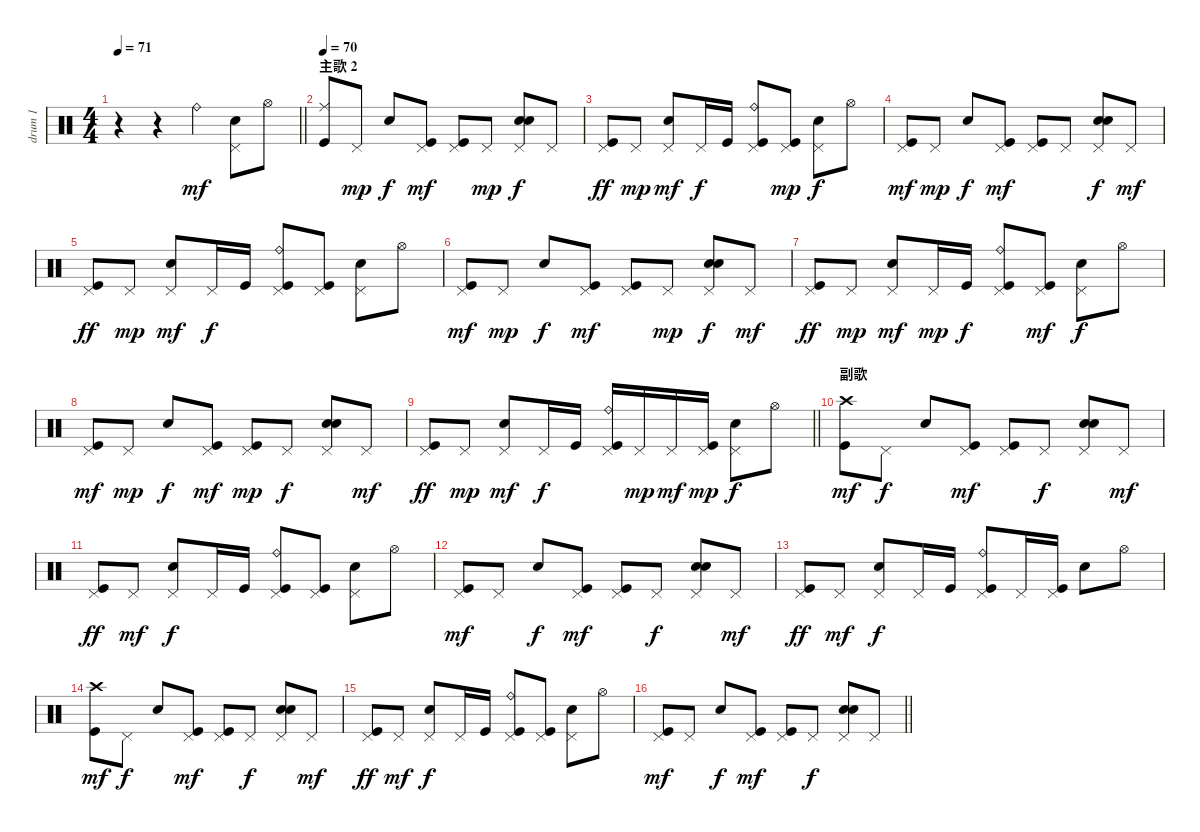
\track ("drum 1" "drum 1") {instrument percussion}
\staff {score}
\articulation defaults
\ts (4 4)
\tempo 71
\clef neutral
\barLineRight lightlight
\ks c
r.4{dy mf} r.4 "Ride (bell)".4 ("Metronome (bell)" "Pedal Hi-Hat (hit)").8 "Hi-Hat (open)".8 |
\section ("" "主歌 2")
\tempo 70
("Ride (middle)" "Kick (hit)").8 "Pedal Hi-Hat (hit)".8{dy mp} "Snare (hit) 2".8{dy f} ("Pedal Hi-Hat (hit)" "Kick (hit)").8{dy mf} ("Pedal Hi-Hat (hit)" "Kick (hit)").8 "Pedal Hi-Hat (hit)".8{dy mp} ("Metronome (bell)" "Pedal Hi-Hat (hit)" "Snare (hit) 2").8{dy f} "Pedal Hi-Hat (hit)".8 |
("Pedal Hi-Hat (hit)" "Kick (hit)").8{dy ff} "Pedal Hi-Hat (hit)".8{dy mp} ("Pedal Hi-Hat (hit)" "Snare (hit) 2").8{dy mf} "Pedal Hi-Hat (hit)".16{dy f} "Kick (hit)".16 ("Ride (bell)" "Pedal Hi-Hat (hit)" "Kick (hit)").8 ("Pedal Hi-Hat (hit)" "Kick (hit)").8{dy mp} ("Pedal Hi-Hat (hit)" "Snare (hit) 2").8{dy f} "Hi-Hat (open)".8 |
("Pedal Hi-Hat (hit)" "Kick (hit)").8{dy mf} "Pedal Hi-Hat (hit)".8{dy mp} "Snare (hit) 2".8{dy f} ("Pedal Hi-Hat (hit)" "Kick (hit)").8{dy mf} ("Pedal Hi-Hat (hit)" "Kick (hit)").8 "Pedal Hi-Hat (hit)".8 ("Metronome (bell)" "Pedal Hi-Hat (hit)" "Snare (hit) 2").8{dy f} "Pedal Hi-Hat (hit)".8{dy mf} |
("Pedal Hi-Hat (hit)" "Kick (hit)").8{dy ff} "Pedal Hi-Hat (hit)".8{dy mp} ("Pedal Hi-Hat (hit)" "Snare (hit) 2").8{dy mf} "Pedal Hi-Hat (hit)".16{dy f} "Kick (hit)".16 ("Ride (bell)" "Pedal Hi-Hat (hit)" "Kick (hit)").8 ("Pedal Hi-Hat (hit)" "Kick (hit)").8 ("Pedal Hi-Hat (hit)" "Snare (hit) 2").8 "Hi-Hat (open)".8 |
("Pedal Hi-Hat (hit)" "Kick (hit)").8{dy mf} "Pedal Hi-Hat (hit)".8{dy mp} "Snare (hit) 2".8{dy f} ("Pedal Hi-Hat (hit)" "Kick (hit)").8{dy mf} ("Pedal Hi-Hat (hit)" "Kick (hit)").8 "Pedal Hi-Hat (hit)".8{dy mp} ("Metronome (bell)" "Pedal Hi-Hat (hit)" "Snare (hit) 2").8{dy f} "Pedal Hi-Hat (hit)".8{dy mf} |
("Pedal Hi-Hat (hit)" "Kick (hit)").8{dy ff} "Pedal Hi-Hat (hit)".8{dy mp} ("Pedal Hi-Hat (hit)" "Snare (hit) 2").8{dy mf} "Pedal Hi-Hat (hit)".16{dy mp} "Kick (hit)".16{dy f} ("Ride (bell)" "Pedal Hi-Hat (hit)" "Kick (hit)").8 ("Pedal Hi-Hat (hit)" "Kick (hit)").8{dy mf} ("Pedal Hi-Hat (hit)" "Snare (hit) 2").8{dy f} "Hi-Hat (open)".8 |
("Pedal Hi-Hat (hit)" "Kick (hit)").8{dy mf} "Pedal Hi-Hat (hit)".8{dy mp} "Snare (hit) 2".8{dy f} ("Pedal Hi-Hat (hit)" "Kick (hit)").8{dy mf} ("Pedal Hi-Hat (hit)" "Kick (hit)").8{dy mp} "Pedal Hi-Hat (hit)".8{dy f} ("Metronome (bell)" "Pedal Hi-Hat (hit)" "Snare (hit) 2").8 "Pedal Hi-Hat (hit)".8{dy mf} |
\barLineRight lightlight
("Pedal Hi-Hat (hit)" "Kick (hit)").8{dy ff} "Pedal Hi-Hat (hit)".8{dy mp} ("Pedal Hi-Hat (hit)" "Snare (hit) 2").8{dy mf} "Pedal Hi-Hat (hit)".16{dy f} "Kick (hit)".16 ("Ride (bell)" "Pedal Hi-Hat (hit)" "Kick (hit)").16 "Pedal Hi-Hat (hit)".16{dy mp} "Pedal Hi-Hat (hit)".16{dy mf} ("Pedal Hi-Hat (hit)" "Kick (hit)").16{dy mp} ("Pedal Hi-Hat (hit)" "Snare (hit) 2").8{dy f} "Hi-Hat (open)".8 |
\section ("" "副歌")
("Crash high (hit)" "Kick (hit)").8{dy mf} "Pedal Hi-Hat (hit)".8{dy f} "Snare (hit) 2".8 ("Pedal Hi-Hat (hit)" "Kick (hit)").8{dy mf} ("Pedal Hi-Hat (hit)" "Kick (hit)").8 "Pedal Hi-Hat (hit)".8{dy f} ("Metronome (bell)" "Pedal Hi-Hat (hit)" "Snare (hit) 2").8 "Pedal Hi-Hat (hit)".8{dy mf} |
("Pedal Hi-Hat (hit)" "Kick (hit)").8{dy ff} "Pedal Hi-Hat (hit)".8{dy mf} ("Pedal Hi-Hat (hit)" "Snare (hit) 2").8{dy f} "Pedal Hi-Hat (hit)".16 "Kick (hit)".16 ("Ride (bell)" "Pedal Hi-Hat (hit)" "Kick (hit)").8 ("Pedal Hi-Hat (hit)" "Kick (hit)").8 ("Pedal Hi-Hat (hit)" "Snare (hit) 2").8 "Hi-Hat (open)".8 |
("Pedal Hi-Hat (hit)" "Kick (hit)").8{dy mf} "Pedal Hi-Hat (hit)".8 "Snare (hit) 2".8{dy f} ("Pedal Hi-Hat (hit)" "Kick (hit)").8{dy mf} ("Pedal Hi-Hat (hit)" "Kick (hit)").8 "Pedal Hi-Hat (hit)".8{dy f} ("Metronome (bell)" "Pedal Hi-Hat (hit)" "Snare (hit) 2").8 "Pedal Hi-Hat (hit)".8{dy mf} |
("Pedal Hi-Hat (hit)" "Kick (hit)").8{dy ff} "Pedal Hi-Hat (hit)".8{dy mf} ("Pedal Hi-Hat (hit)" "Snare (hit) 2").8{dy f} "Pedal Hi-Hat (hit)".16 "Kick (hit)".16 ("Ride (bell)" "Pedal Hi-Hat (hit)" "Kick (hit)").8 "Pedal Hi-Hat (hit)".16 ("Pedal Hi-Hat (hit)" "Kick (hit)").16 "Snare (hit) 2".8 "Hi-Hat (open)".8 |
("Crash high (hit)" "Kick (hit)").8{dy mf} "Pedal Hi-Hat (hit)".8{dy f} "Snare (hit) 2".8 ("Pedal Hi-Hat (hit)" "Kick (hit)").8{dy mf} ("Pedal Hi-Hat (hit)" "Kick (hit)").8 "Pedal Hi-Hat (hit)".8{dy f} ("Metronome (bell)" "Pedal Hi-Hat (hit)" "Snare (hit) 2").8 "Pedal Hi-Hat (hit)".8{dy mf} |
("Pedal Hi-Hat (hit)" "Kick (hit)").8{dy ff} "Pedal Hi-Hat (hit)".8{dy mf} ("Pedal Hi-Hat (hit)" "Snare (hit) 2").8{dy f} "Pedal Hi-Hat (hit)".16 "Kick (hit)".16 ("Ride (bell)" "Pedal Hi-Hat (hit)" "Kick (hit)").8 ("Pedal Hi-Hat (hit)" "Kick (hit)").8 ("Pedal Hi-Hat (hit)" "Snare (hit) 2").8 "Hi-Hat (open)".8 |
\barLineRight lightlight
("Pedal Hi-Hat (hit)" "Kick (hit)").8{dy mf} "Pedal Hi-Hat (hit)".8 "Snare (hit) 2".8{dy f} ("Pedal Hi-Hat (hit)" "Kick (hit)").8{dy mf} ("Pedal Hi-Hat (hit)" "Kick (hit)").8 "Pedal Hi-Hat (hit)".8{dy f} ("Metronome (bell)" "Pedal Hi-Hat (hit)" "Snare (hit) 2").8 "Pedal Hi-Hat (hit)".8
